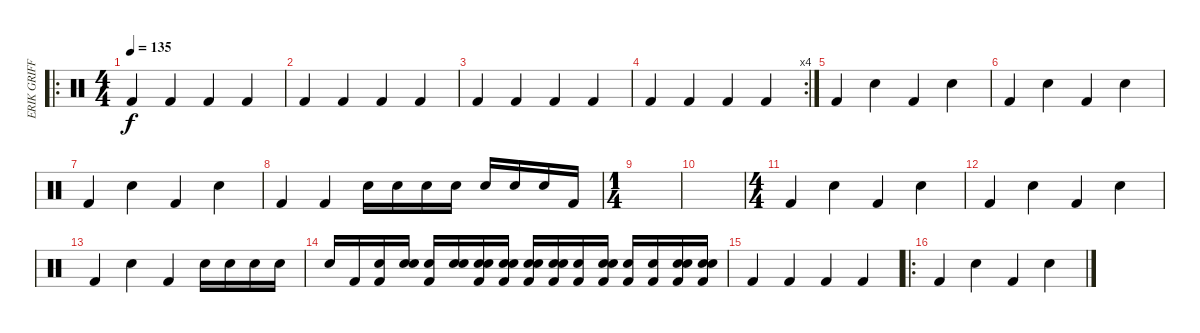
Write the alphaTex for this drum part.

\track ("ERIK GRIFFIN DRUMS" "ERIK GRIFF") {instrument percussion}
\staff {score}
\articulation defaults
\ro
\ts (4 4)
\tempo 135
\clef neutral
\ks c "Kick (hit) 2".4{dy f} "Kick (hit) 2".4 "Kick (hit) 2".4 "Kick (hit) 2".4
|
"Kick (hit) 2".4 "Kick (hit) 2".4 "Kick (hit) 2".4 "Kick (hit) 2".4 |
"Kick (hit) 2".4 "Kick (hit) 2".4 "Kick (hit) 2".4 "Kick (hit) 2".4 |
\rc 4 "Kick (hit) 2".4 "Kick (hit) 2".4 "Kick (hit) 2".4 "Kick (hit) 2".4
|
"Kick (hit) 2".4 "Snare (hit) 2".4 "Kick (hit) 2".4 "Snare (hit) 2".4 |
"Kick (hit) 2".4 "Snare (hit) 2".4 "Kick (hit) 2".4 "Snare (hit) 2".4 |
"Kick (hit) 2".4 "Snare (hit) 2".4 "Kick (hit) 2".4 "Snare (hit) 2".4 |
"Kick (hit) 2".4 "Kick (hit) 2".4 "Electric Snare (hit)".16 "Electric Snare (hit)".16 "Electric Snare (hit)".16 "Electric Snare (hit)".16 "Snare (hit) 2".16 "Snare (hit) 2".16 "Snare (hit) 2".16 "Kick (hit) 2".16 |
\ts (1 4)
|
|
\ts (4 4)
"Kick (hit) 2".4 "Snare (hit) 2".4 "Kick (hit) 2".4 "Snare (hit) 2".4 |
"Kick (hit) 2".4 "Snare (hit) 2".4 "Kick (hit) 2".4 "Snare (hit) 2".4 |
"Kick (hit) 2".4 "Snare (hit) 2".4 "Kick (hit) 2".4 "Snare (hit) 2".16 "Snare (hit) 2".16 "Snare (hit) 2".16 "Snare (hit) 2".16 |
"Snare (hit) 2".16 "Kick (hit) 2".16 ("Electric Snare (hit)" "Kick (hit) 2").16 ("Snare (hit) 2" "Electric Snare (hit)").16 ("Electric Snare (hit)" "Kick (hit) 2").16 ("Snare (hit) 2" "Electric Snare (hit)").16 ("Electric Snare (hit)" "Snare (hit) 2" "Kick (hit) 2").16 ("Electric Snare (hit)" "Snare (hit) 2" "Kick (hit) 2").16 ("Electric Snare (hit)" "Snare (hit) 2" "Kick (hit) 2").16 ("Electric Snare (hit)" "Snare (hit) 2" "Kick (hit) 2").16 ("Electric Snare (hit)" "Kick (hit) 2").16 ("Electric Snare (hit)" "Kick (hit) 2" "Snare (hit) 2").16 ("Electric Snare (hit)" "Kick (hit) 2").16 ("Electric Snare (hit)" "Kick (hit) 2").16 ("Electric Snare (hit)" "Kick (hit) 2" "Snare (hit) 2").16 ("Electric Snare (hit)" "Kick (hit) 2" "Snare (hit) 2").16 |
"Kick (hit) 2".4 "Kick (hit) 2".4 "Kick (hit) 2".4 "Kick (hit) 2".4 |
\ro "Kick (hit) 2".4 "Snare (hit) 2".4 "Kick (hit) 2".4 "Snare (hit) 2".4
